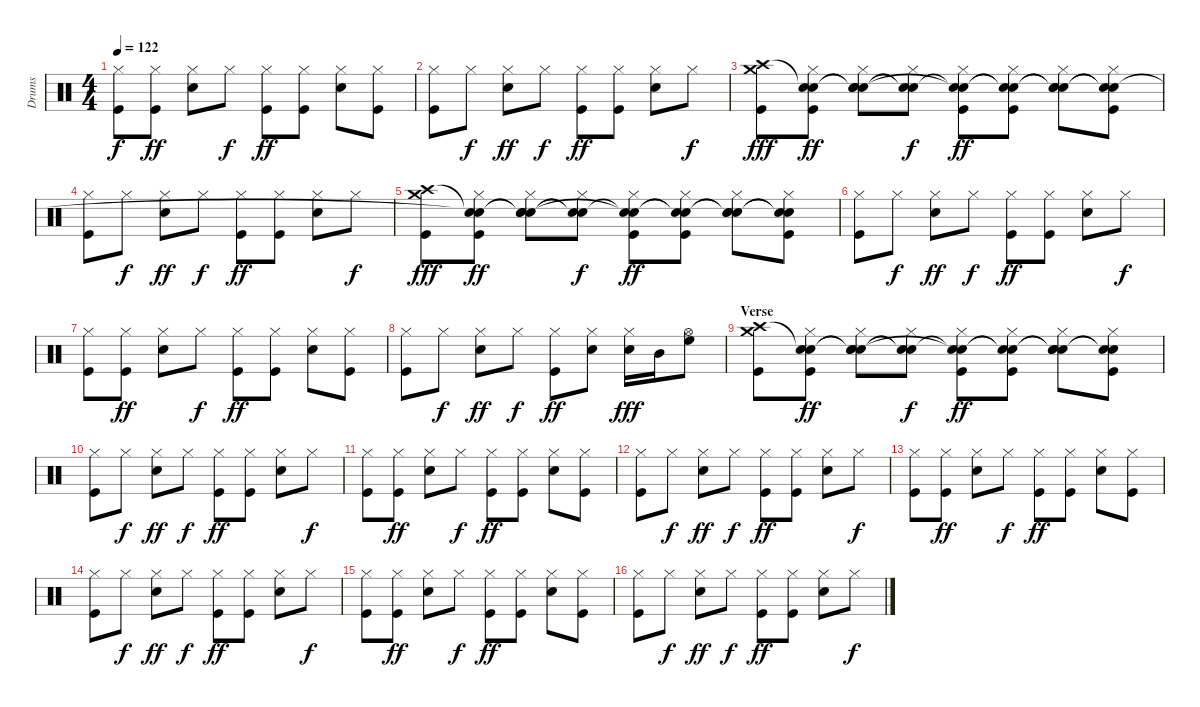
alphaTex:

\track ("Drums" "Drums") {instrument percussion}
\staff {score}
\articulation defaults
\ts (4 4)
\tempo 122
\clef neutral
\ks c
("Hi-Hat (closed)" "Kick (hit)").8{dy f} ("Hi-Hat (closed)" "Kick (hit)").8{dy ff} ("Hi-Hat (closed)" "Snare (hit) 2").8 "Hi-Hat (closed)".8{dy f} ("Hi-Hat (closed)" "Kick (hit)").8{dy ff} ("Hi-Hat (closed)" "Kick (hit)").8 ("Hi-Hat (closed)" "Snare (hit) 2").8 ("Hi-Hat (closed)" "Kick (hit)").8 |
("Hi-Hat (closed)" "Kick (hit)").8 "Hi-Hat (closed)".8{dy f} ("Hi-Hat (closed)" "Snare (hit) 2").8{dy ff} "Hi-Hat (closed)".8{dy f} ("Hi-Hat (closed)" "Kick (hit)").8{dy ff} ("Hi-Hat (closed)" "Kick (hit)").8 ("Hi-Hat (closed)" "Snare (hit) 2").8 "Hi-Hat (closed)".8{dy f} |
("Kick (hit)" "Crash medium (hit)" "Crash high (hit)").8{dy fff} ("Hi-Hat (closed)" "Kick (hit)" "Snare (hit)"{t} "Snare (hit)").8{dy ff} ("Hi-Hat (closed)" "Snare (hit) 2" "Snare (hit)"{t} "Snare (hit)"{t}).8 ("Hi-Hat (closed)" "Snare (hit)"{t} "Snare (hit)"{t}).8{dy f} ("Hi-Hat (closed)" "Kick (hit)" "Snare (hit)"{t} "Snare (hit)"{t}).8{dy ff} ("Hi-Hat (closed)" "Kick (hit)" "Snare (hit)"{t} "Snare (hit)"{t}).8 ("Hi-Hat (closed)" "Snare (hit) 2" "Snare (hit)"{t} "Snare (hit)"{t}).8 ("Hi-Hat (closed)" "Kick (hit)" "Snare (hit)"{t} "Snare (hit)"{t}).8 |
("Hi-Hat (closed)" "Kick (hit)").8 "Hi-Hat (closed)".8{dy f} ("Hi-Hat (closed)" "Snare (hit) 2").8{dy ff} "Hi-Hat (closed)".8{dy f} ("Hi-Hat (closed)" "Kick (hit)").8{dy ff} ("Hi-Hat (closed)" "Kick (hit)").8 ("Hi-Hat (closed)" "Snare (hit) 2").8 "Hi-Hat (closed)".8{dy f} |
("Kick (hit)" "Crash medium (hit)" "Crash high (hit)").8{dy fff} ("Hi-Hat (closed)" "Kick (hit)" "Snare (hit)"{t} "Snare (hit)"{t}).8{dy ff} ("Hi-Hat (closed)" "Snare (hit) 2" "Snare (hit)"{t} "Snare (hit)"{t}).8 ("Hi-Hat (closed)" "Snare (hit)"{t} "Snare (hit)"{t}).8{dy f} ("Hi-Hat (closed)" "Kick (hit)" "Snare (hit)"{t} "Snare (hit)"{t}).8{dy ff} ("Hi-Hat (closed)" "Kick (hit)" "Snare (hit)"{t} "Snare (hit)"{t}).8 ("Hi-Hat (closed)" "Snare (hit) 2" "Snare (hit)"{t} "Snare (hit)"{t}).8 ("Hi-Hat (closed)" "Kick (hit)" "Snare (hit)"{t} "Snare (hit)"{t}).8 |
("Hi-Hat (closed)" "Kick (hit)").8 "Hi-Hat (closed)".8{dy f} ("Hi-Hat (closed)" "Snare (hit) 2").8{dy ff} "Hi-Hat (closed)".8{dy f} ("Hi-Hat (closed)" "Kick (hit)").8{dy ff} ("Hi-Hat (closed)" "Kick (hit)").8 ("Hi-Hat (closed)" "Snare (hit) 2").8 "Hi-Hat (closed)".8{dy f} |
("Hi-Hat (closed)" "Kick (hit)").8 ("Hi-Hat (closed)" "Kick (hit)").8{dy ff} ("Hi-Hat (closed)" "Snare (hit) 2").8 "Hi-Hat (closed)".8{dy f} ("Hi-Hat (closed)" "Kick (hit)").8{dy ff} ("Hi-Hat (closed)" "Kick (hit)").8 ("Hi-Hat (closed)" "Snare (hit) 2").8 ("Hi-Hat (closed)" "Kick (hit)").8 |
("Hi-Hat (closed)" "Kick (hit)").8 "Hi-Hat (closed)".8{dy f} ("Hi-Hat (closed)" "Snare (hit) 2").8{dy ff} "Hi-Hat (closed)".8{dy f} ("Hi-Hat (closed)" "Kick (hit)").8{dy ff} ("Hi-Hat (closed)" "Snare (hit) 2").8 ("Hi-Hat (closed)" "Snare (hit) 2").16{dy fff} "Mid Tom (hit)".16 ("Hi-Hat (open)" "High Floor Tom (hit)").8 |
\section ("" "Verse")
("Kick (hit)" "Crash medium (hit)" "Crash high (hit)").8 ("Hi-Hat (closed)" "Kick (hit)" "Snare (hit)"{t} "Snare (hit)").8{dy ff} ("Hi-Hat (closed)" "Snare (hit) 2" "Snare (hit)"{t} "Snare (hit)"{t}).8 ("Hi-Hat (closed)" "Snare (hit)"{t} "Snare (hit)"{t}).8{dy f} ("Hi-Hat (closed)" "Kick (hit)" "Snare (hit)"{t} "Snare (hit)"{t}).8{dy ff} ("Hi-Hat (closed)" "Kick (hit)" "Snare (hit)"{t} "Snare (hit)"{t}).8 ("Hi-Hat (closed)" "Snare (hit) 2" "Snare (hit)"{t} "Snare (hit)"{t}).8 ("Hi-Hat (closed)" "Kick (hit)" "Snare (hit)"{t} "Snare (hit)"{t}).8 |
("Hi-Hat (closed)" "Kick (hit)").8 "Hi-Hat (closed)".8{dy f} ("Hi-Hat (closed)" "Snare (hit) 2").8{dy ff} "Hi-Hat (closed)".8{dy f} ("Hi-Hat (closed)" "Kick (hit)").8{dy ff} ("Hi-Hat (closed)" "Kick (hit)").8 ("Hi-Hat (closed)" "Snare (hit) 2").8 "Hi-Hat (closed)".8{dy f} |
("Hi-Hat (closed)" "Kick (hit)").8 ("Hi-Hat (closed)" "Kick (hit)").8{dy ff} ("Hi-Hat (closed)" "Snare (hit) 2").8 "Hi-Hat (closed)".8{dy f} ("Hi-Hat (closed)" "Kick (hit)").8{dy ff} ("Hi-Hat (closed)" "Kick (hit)").8 ("Hi-Hat (closed)" "Snare (hit) 2").8 ("Hi-Hat (closed)" "Kick (hit)").8 |
("Hi-Hat (closed)" "Kick (hit)").8 "Hi-Hat (closed)".8{dy f} ("Hi-Hat (closed)" "Snare (hit) 2").8{dy ff} "Hi-Hat (closed)".8{dy f} ("Hi-Hat (closed)" "Kick (hit)").8{dy ff} ("Hi-Hat (closed)" "Kick (hit)").8 ("Hi-Hat (closed)" "Snare (hit) 2").8 "Hi-Hat (closed)".8{dy f} |
("Hi-Hat (closed)" "Kick (hit)").8 ("Hi-Hat (closed)" "Kick (hit)").8{dy ff} ("Hi-Hat (closed)" "Snare (hit) 2").8 "Hi-Hat (closed)".8{dy f} ("Hi-Hat (closed)" "Kick (hit)").8{dy ff} ("Hi-Hat (closed)" "Kick (hit)").8 ("Hi-Hat (closed)" "Snare (hit) 2").8 ("Hi-Hat (closed)" "Kick (hit)").8 |
("Hi-Hat (closed)" "Kick (hit)").8 "Hi-Hat (closed)".8{dy f} ("Hi-Hat (closed)" "Snare (hit) 2").8{dy ff} "Hi-Hat (closed)".8{dy f} ("Hi-Hat (closed)" "Kick (hit)").8{dy ff} ("Hi-Hat (closed)" "Kick (hit)").8 ("Hi-Hat (closed)" "Snare (hit) 2").8 "Hi-Hat (closed)".8{dy f} |
("Hi-Hat (closed)" "Kick (hit)").8 ("Hi-Hat (closed)" "Kick (hit)").8{dy ff} ("Hi-Hat (closed)" "Snare (hit) 2").8 "Hi-Hat (closed)".8{dy f} ("Hi-Hat (closed)" "Kick (hit)").8{dy ff} ("Hi-Hat (closed)" "Kick (hit)").8 ("Hi-Hat (closed)" "Snare (hit) 2").8 ("Hi-Hat (closed)" "Kick (hit)").8 |
("Hi-Hat (closed)" "Kick (hit)").8 "Hi-Hat (closed)".8{dy f} ("Hi-Hat (closed)" "Snare (hit) 2").8{dy ff} "Hi-Hat (closed)".8{dy f} ("Hi-Hat (closed)" "Kick (hit)").8{dy ff} ("Hi-Hat (closed)" "Kick (hit)").8 ("Hi-Hat (closed)" "Snare (hit) 2").8 "Hi-Hat (closed)".8{dy f}
